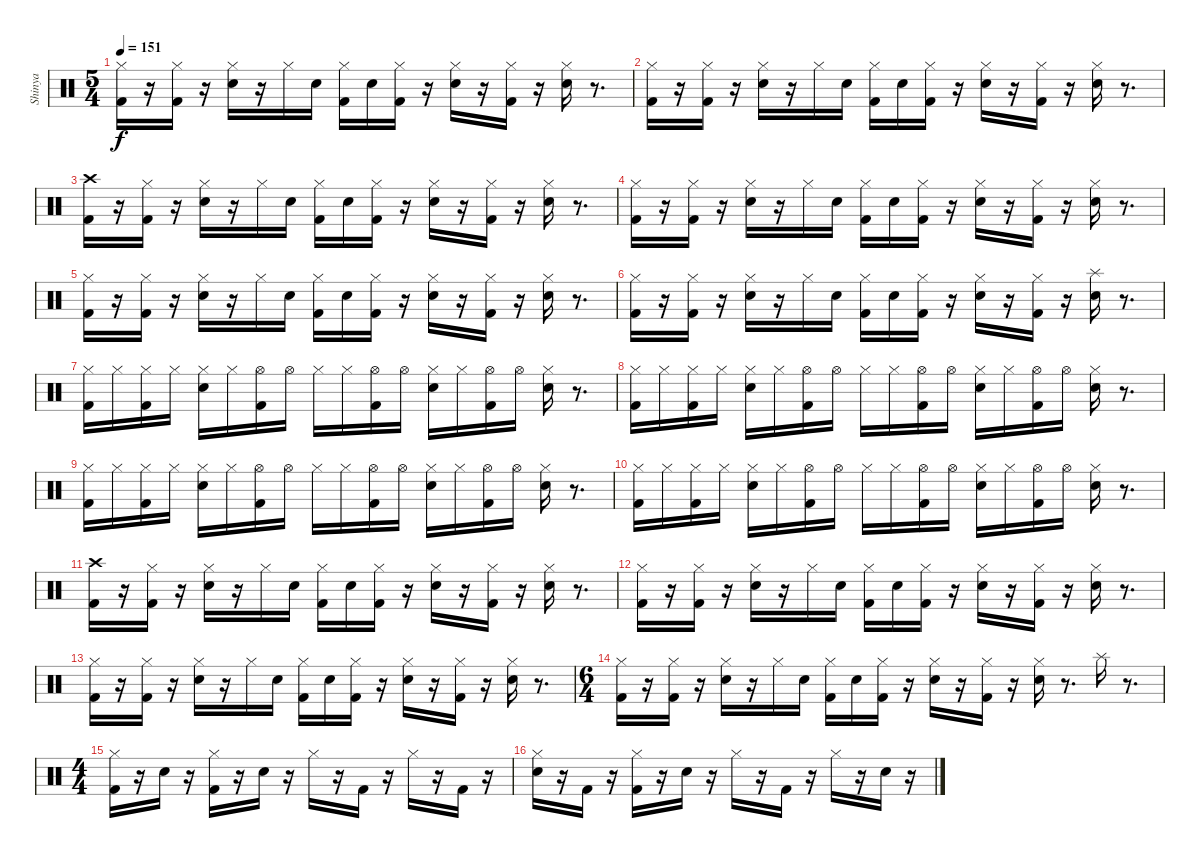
\track ("Shinya" "Shinya") {instrument percussion}
\staff {score}
\articulation defaults
\ts (5 4)
\tempo 151
\clef neutral
\ks c
("Kick (hit) 2" "Hi-Hat (closed)").16{dy f} r.16 ("Kick (hit) 2" "Hi-Hat (closed)").16 r.16 ("Snare (hit) 2" "Hi-Hat (closed)").16 r.16 "Hi-Hat (closed)".16 "Snare (hit) 2".16 ("Hi-Hat (closed)" "Kick (hit) 2").16 "Snare (hit) 2".16 ("Hi-Hat (closed)" "Kick (hit) 2").16 r.16 ("Snare (hit) 2" "Hi-Hat (closed)").16 r.16 ("Kick (hit) 2" "Hi-Hat (closed)").16 r.16 ("Snare (hit) 2" "Hi-Hat (closed)").16 r.8{d} |
("Kick (hit) 2" "Hi-Hat (closed)").16 r.16 ("Kick (hit) 2" "Hi-Hat (closed)").16 r.16 ("Snare (hit) 2" "Hi-Hat (closed)").16 r.16 "Hi-Hat (closed)".16 "Snare (hit) 2".16 ("Hi-Hat (closed)" "Kick (hit) 2").16 "Snare (hit) 2".16 ("Hi-Hat (closed)" "Kick (hit) 2").16 r.16 ("Snare (hit) 2" "Hi-Hat (closed)").16 r.16 ("Kick (hit) 2" "Hi-Hat (closed)").16 r.16 ("Snare (hit) 2" "Hi-Hat (closed)").16 r.8{d} |
("Kick (hit) 2" "Crash high (hit)").16 r.16 ("Kick (hit) 2" "Hi-Hat (closed)").16 r.16 ("Snare (hit) 2" "Hi-Hat (closed)").16 r.16 "Hi-Hat (closed)".16 "Snare (hit) 2".16 ("Hi-Hat (closed)" "Kick (hit) 2").16 "Snare (hit) 2".16 ("Hi-Hat (closed)" "Kick (hit) 2").16 r.16 ("Snare (hit) 2" "Hi-Hat (closed)").16 r.16 ("Kick (hit) 2" "Hi-Hat (closed)").16 r.16 ("Snare (hit) 2" "Hi-Hat (closed)").16 r.8{d} |
("Kick (hit) 2" "Hi-Hat (closed)").16 r.16 ("Kick (hit) 2" "Hi-Hat (closed)").16 r.16 ("Snare (hit) 2" "Hi-Hat (closed)").16 r.16 "Hi-Hat (closed)".16 "Snare (hit) 2".16 ("Hi-Hat (closed)" "Kick (hit) 2").16 "Snare (hit) 2".16 ("Hi-Hat (closed)" "Kick (hit) 2").16 r.16 ("Snare (hit) 2" "Hi-Hat (closed)").16 r.16 ("Kick (hit) 2" "Hi-Hat (closed)").16 r.16 ("Snare (hit) 2" "Hi-Hat (closed)").16 r.8{d} |
("Kick (hit) 2" "Hi-Hat (closed)").16 r.16 ("Kick (hit) 2" "Hi-Hat (closed)").16 r.16 ("Snare (hit) 2" "Hi-Hat (closed)").16 r.16 "Hi-Hat (closed)".16 "Snare (hit) 2".16 ("Hi-Hat (closed)" "Kick (hit) 2").16 "Snare (hit) 2".16 ("Hi-Hat (closed)" "Kick (hit) 2").16 r.16 ("Snare (hit) 2" "Hi-Hat (closed)").16 r.16 ("Kick (hit) 2" "Hi-Hat (closed)").16 r.16 ("Snare (hit) 2" "Hi-Hat (closed)").16 r.8{d} |
("Kick (hit) 2" "Hi-Hat (closed)").16 r.16 ("Kick (hit) 2" "Hi-Hat (closed)").16 r.16 ("Snare (hit) 2" "Hi-Hat (closed)").16 r.16 "Hi-Hat (closed)".16 "Snare (hit) 2".16 ("Hi-Hat (closed)" "Kick (hit) 2").16 "Snare (hit) 2".16 ("Hi-Hat (closed)" "Kick (hit) 2").16 r.16 ("Snare (hit) 2" "Hi-Hat (closed)").16 r.16 ("Kick (hit) 2" "Hi-Hat (closed)").16 r.16 ("Splash (hit)" "Snare (hit) 2").16 r.8{d} |
("Hi-Hat (closed)" "Kick (hit) 2").16 "Hi-Hat (closed)".16 ("Hi-Hat (closed)" "Kick (hit) 2").16 "Hi-Hat (closed)".16 ("Snare (hit) 2" "Hi-Hat (closed)").16 "Hi-Hat (closed)".16 ("Hi-Hat (open)" "Kick (hit) 2").16 "Hi-Hat (open)".16 "Hi-Hat (closed)".16 "Hi-Hat (closed)".16 ("Hi-Hat (open)" "Kick (hit) 2").16 "Hi-Hat (open)".16 ("Snare (hit) 2" "Hi-Hat (closed)").16 "Hi-Hat (closed)".16 ("Hi-Hat (open)" "Kick (hit) 2").16 "Hi-Hat (open)".16 ("Snare (hit) 2" "Hi-Hat (closed)").16 r.8{d} |
("Hi-Hat (closed)" "Kick (hit) 2").16 "Hi-Hat (closed)".16 ("Hi-Hat (closed)" "Kick (hit) 2").16 "Hi-Hat (closed)".16 ("Snare (hit) 2" "Hi-Hat (closed)").16 "Hi-Hat (closed)".16 ("Hi-Hat (open)" "Kick (hit) 2").16 "Hi-Hat (open)".16 "Hi-Hat (closed)".16 "Hi-Hat (closed)".16 ("Hi-Hat (open)" "Kick (hit) 2").16 "Hi-Hat (open)".16 ("Snare (hit) 2" "Hi-Hat (closed)").16 "Hi-Hat (closed)".16 ("Hi-Hat (open)" "Kick (hit) 2").16 "Hi-Hat (open)".16 ("Snare (hit) 2" "Hi-Hat (closed)").16 r.8{d} |
("Hi-Hat (closed)" "Kick (hit) 2").16 "Hi-Hat (closed)".16 ("Hi-Hat (closed)" "Kick (hit) 2").16 "Hi-Hat (closed)".16 ("Snare (hit) 2" "Hi-Hat (closed)").16 "Hi-Hat (closed)".16 ("Hi-Hat (open)" "Kick (hit) 2").16 "Hi-Hat (open)".16 "Hi-Hat (closed)".16 "Hi-Hat (closed)".16 ("Hi-Hat (open)" "Kick (hit) 2").16 "Hi-Hat (open)".16 ("Snare (hit) 2" "Hi-Hat (closed)").16 "Hi-Hat (closed)".16 ("Hi-Hat (open)" "Kick (hit) 2").16 "Hi-Hat (open)".16 ("Snare (hit) 2" "Hi-Hat (closed)").16 r.8{d} |
("Hi-Hat (closed)" "Kick (hit) 2").16 "Hi-Hat (closed)".16 ("Hi-Hat (closed)" "Kick (hit) 2").16 "Hi-Hat (closed)".16 ("Snare (hit) 2" "Hi-Hat (closed)").16 "Hi-Hat (closed)".16 ("Hi-Hat (open)" "Kick (hit) 2").16 "Hi-Hat (open)".16 "Hi-Hat (closed)".16 "Hi-Hat (closed)".16 ("Hi-Hat (open)" "Kick (hit) 2").16 "Hi-Hat (open)".16 ("Snare (hit) 2" "Hi-Hat (closed)").16 "Hi-Hat (closed)".16 ("Hi-Hat (open)" "Kick (hit) 2").16 "Hi-Hat (open)".16 ("Snare (hit) 2" "Hi-Hat (closed)").16 r.8{d} |
("Kick (hit) 2" "Crash high (hit)").16 r.16 ("Kick (hit) 2" "Hi-Hat (closed)").16 r.16 ("Snare (hit) 2" "Hi-Hat (closed)").16 r.16 "Hi-Hat (closed)".16 "Snare (hit) 2".16 ("Hi-Hat (closed)" "Kick (hit) 2").16 "Snare (hit) 2".16 ("Hi-Hat (closed)" "Kick (hit) 2").16 r.16 ("Snare (hit) 2" "Hi-Hat (closed)").16 r.16 ("Kick (hit) 2" "Hi-Hat (closed)").16 r.16 ("Snare (hit) 2" "Hi-Hat (closed)").16 r.8{d} |
("Kick (hit) 2" "Hi-Hat (closed)").16 r.16 ("Kick (hit) 2" "Hi-Hat (closed)").16 r.16 ("Snare (hit) 2" "Hi-Hat (closed)").16 r.16 "Hi-Hat (closed)".16 "Snare (hit) 2".16 ("Hi-Hat (closed)" "Kick (hit) 2").16 "Snare (hit) 2".16 ("Hi-Hat (closed)" "Kick (hit) 2").16 r.16 ("Snare (hit) 2" "Hi-Hat (closed)").16 r.16 ("Kick (hit) 2" "Hi-Hat (closed)").16 r.16 ("Snare (hit) 2" "Hi-Hat (closed)").16 r.8{d} |
("Kick (hit) 2" "Hi-Hat (closed)").16 r.16 ("Kick (hit) 2" "Hi-Hat (closed)").16 r.16 ("Snare (hit) 2" "Hi-Hat (closed)").16 r.16 "Hi-Hat (closed)".16 "Snare (hit) 2".16 ("Hi-Hat (closed)" "Kick (hit) 2").16 "Snare (hit) 2".16 ("Hi-Hat (closed)" "Kick (hit) 2").16 r.16 ("Snare (hit) 2" "Hi-Hat (closed)").16 r.16 ("Kick (hit) 2" "Hi-Hat (closed)").16 r.16 ("Snare (hit) 2" "Hi-Hat (closed)").16 r.8{d} |
\ts (6 4)
("Kick (hit) 2" "Hi-Hat (closed)").16 r.16 ("Kick (hit) 2" "Hi-Hat (closed)").16 r.16 ("Snare (hit) 2" "Hi-Hat (closed)").16 r.16 "Hi-Hat (closed)".16 "Snare (hit) 2".16 ("Hi-Hat (closed)" "Kick (hit) 2").16 "Snare (hit) 2".16 ("Hi-Hat (closed)" "Kick (hit) 2").16 r.16 ("Snare (hit) 2" "Hi-Hat (closed)").16 r.16 ("Kick (hit) 2" "Hi-Hat (closed)").16 r.16 ("Snare (hit) 2" "Hi-Hat (closed)").16 r.8{d} "Splash (hit)".16 r.8{d} |
\ts (4 4)
("Hi-Hat (closed)" "Kick (hit) 2").16 r.16 "Snare (hit) 2".16 r.16 ("Hi-Hat (closed)" "Kick (hit) 2").16 r.16 "Snare (hit) 2".16 r.16 "Hi-Hat (closed)".16 r.16 "Kick (hit) 2".16 r.16 "Hi-Hat (closed)".16 r.16 "Kick (hit) 2".16 r.16 |
("Snare (hit) 2" "Hi-Hat (closed)").16 r.16 "Kick (hit) 2".16 r.16 ("Kick (hit) 2" "Hi-Hat (closed)").16 r.16 "Snare (hit) 2".16 r.16 "Hi-Hat (closed)".16 r.16 "Kick (hit) 2".16 r.16 "Hi-Hat (closed)".16 r.16 "Snare (hit) 2".16 r.16
